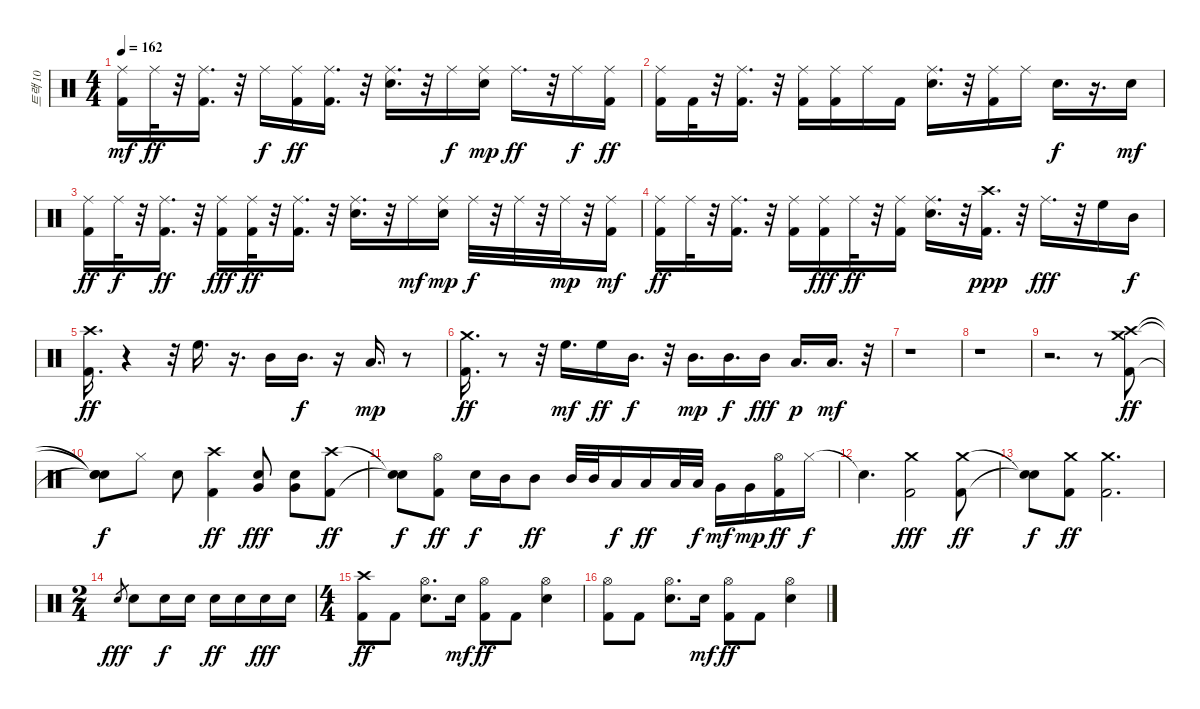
\track ("트랙 10" "트랙 10") {instrument percussion}
\staff {score}
\articulation defaults
\ts (4 4)
\tempo 162
\clef neutral
\ks c
("Kick (hit) 2" "Ride (middle)").16{dy mf} "Ride (middle)".32{dy ff} r.32 ("Kick (hit) 2" "Ride (middle)").16{d} r.32 "Ride (middle)".16{dy f} ("Kick (hit) 2" "Ride (middle)").16{dy ff} ("Kick (hit) 2" "Ride (middle)").16{d} r.32 ("Electric Snare (hit)" "Ride (middle)").16{d} r.32 "Ride (middle)".16{dy f} ("Electric Snare (hit)" "Ride (middle)").16{dy mp} "Ride (middle)".16{d dy ff} r.32 "Ride (middle)".16{dy f} ("Kick (hit) 2" "Ride (middle)").16{dy ff} |
("Kick (hit) 2" "Ride (middle)").16 "Kick (hit) 2".32 r.32 ("Kick (hit) 2" "Ride (middle)").16{d} r.32 ("Kick (hit) 2" "Ride (middle)").16 ("Kick (hit) 2" "Ride (middle)").16 "Ride (middle)".16 "Kick (hit) 2".16 ("Electric Snare (hit)" "Ride (middle)").16{d} r.32 ("Kick (hit) 2" "Ride (middle)").16 "Ride (middle)".16 "Electric Snare (hit)".16{d dy f} r.16{d} "Electric Snare (hit)".16{dy mf} |
("Kick (hit) 2" "Ride (middle)").16{dy ff} "Ride (middle)".32{dy f} r.32 ("Kick (hit) 2" "Ride (middle)").16{d dy ff} r.32 ("Kick (hit) 2" "Ride (middle)").16{dy fff} ("Kick (hit) 2" "Ride (middle)").32{dy ff} r.32 ("Kick (hit) 2" "Ride (middle)").16{d} r.32 ("Electric Snare (hit)" "Ride (middle)").16{d} r.32 "Ride (middle)".16{dy mf} ("Electric Snare (hit)" "Ride (middle)").16{dy mp} "Ride (middle)".32{dy f} r.32 "Ride (middle)".32 r.32 "Ride (middle)".32{dy mp} r.32 ("Kick (hit) 2" "Ride (middle)").16{dy mf} |
("Kick (hit) 2" "Ride (middle)").16{dy ff} "Ride (middle)".32 r.32 ("Kick (hit) 2" "Ride (middle)").16{d} r.32 ("Kick (hit) 2" "Ride (middle)").16 ("Kick (hit) 2" "Ride (middle)").16{dy fff} "Ride (middle)".32{dy ff} r.32 ("Kick (hit) 2" "Ride (middle)").16 ("Electric Snare (hit)" "Ride (middle)").16{d} r.32 ("Kick (hit) 2" "Crash high (hit)").16{d dy ppp} r.32 "Ride (middle)".16{d dy fff} r.32 "High Floor Tom (hit)".16 "Mid Tom (hit)".16{dy f} |
("Kick (hit) 2" "Crash high (hit)").16{d dy ff} r.4 r.32 "High Floor Tom (hit)".16{d} r.16{d} "Mid Tom (hit)".16 "Mid Tom (hit)".16{d dy f} r.16 "Low Tom (hit)".16{d dy mp} r.8 |
("Kick (hit) 2" "Crash medium (hit)").16{d dy ff} r.8 r.32 "High Floor Tom (hit)".16{d dy mf} "High Floor Tom (hit)".16{dy ff} "Mid Tom (hit)".16{d dy f} r.32 "Mid Tom (hit)".16{d dy mp} "Mid Tom (hit)".16{d dy f} "Mid Tom (hit)".16{dy fff} "Low Tom (hit)".16{d dy p} "Low Tom (hit)".16{d dy mf} r.32 |
r.1 |
r.1 |
r.2{d} r.8 ("Kick (hit) 2" "Crash high (hit)" "Crash medium (hit)").8{dy ff} |
("Snare (hit)"{t} "Snare (hit)"{t} "Snare (hit)"{t}).8{dy f} "Hi-Hat (closed)".8 "Electric Snare (hit)".8 ("Kick (hit) 2" "Crash high (hit)").4{dy ff} ("Electric Snare (hit)" "Very Low Tom (hit)").8{dy fff} ("Electric Snare (hit)" "Very Low Tom (hit)").8 ("Kick (hit) 2" "Crash high (hit)").8{dy ff} |
("Snare (hit)"{t} "Snare (hit)"{t}).8{dy f} ("Hi-Hat (open)" "Kick (hit) 2").8{dy ff} "Electric Snare (hit)".16{dy f} "Mid Tom (hit)".16 "Mid Tom (hit)".8{dy ff} "Mid Tom (hit)".32 "Mid Tom (hit)".32 "Low Tom (hit)".16{dy f} "Low Tom (hit)".16{dy ff} "Low Tom (hit)".32 "Low Tom (hit)".32{dy f} "Very Low Tom (hit)".16{dy mf} "Very Low Tom (hit)".16{dy mp} ("Hi-Hat (open)" "Kick (hit) 2").16{dy ff} "Hi-Hat (closed)".16{dy f} |
"Snare (hit)"{t}.4{d} ("Kick (hit) 2" "Crash medium (hit)").2{dy fff} ("Kick (hit) 2" "Crash medium (hit)").8{dy ff} |
("Snare (hit)"{t} "Snare (hit)"{t}).8{dy f} ("Kick (hit) 2" "Crash medium (hit)").8{dy ff} ("Kick (hit) 2" "Crash medium (hit)").2{d} |
\ts (2 4)
"Electric Snare (hit)".8{gr dy fff} "Electric Snare (hit)".8 "Electric Snare (hit)".16{dy f} "Electric Snare (hit)".16 "Electric Snare (hit)".16{dy ff} "Electric Snare (hit)".16 "Electric Snare (hit)".16{dy fff} "Electric Snare (hit)".16 |
\ts (4 4)
("Kick (hit) 2" "Crash high (hit)").8{dy ff} "Kick (hit) 2".8 ("Hi-Hat (open)" "Electric Snare (hit)").8{d} "Electric Snare (hit)".16{dy mf} ("Hi-Hat (open)" "Kick (hit) 2").8{dy ff} "Kick (hit) 2".8 ("Hi-Hat (open)" "Electric Snare (hit)").4 |
("Hi-Hat (open)" "Kick (hit) 2").8 "Kick (hit) 2".8 ("Hi-Hat (open)" "Electric Snare (hit)").8{d} "Electric Snare (hit)".16{dy mf} ("Hi-Hat (open)" "Kick (hit) 2").8{dy ff} "Kick (hit) 2".8 ("Hi-Hat (open)" "Electric Snare (hit)").4
